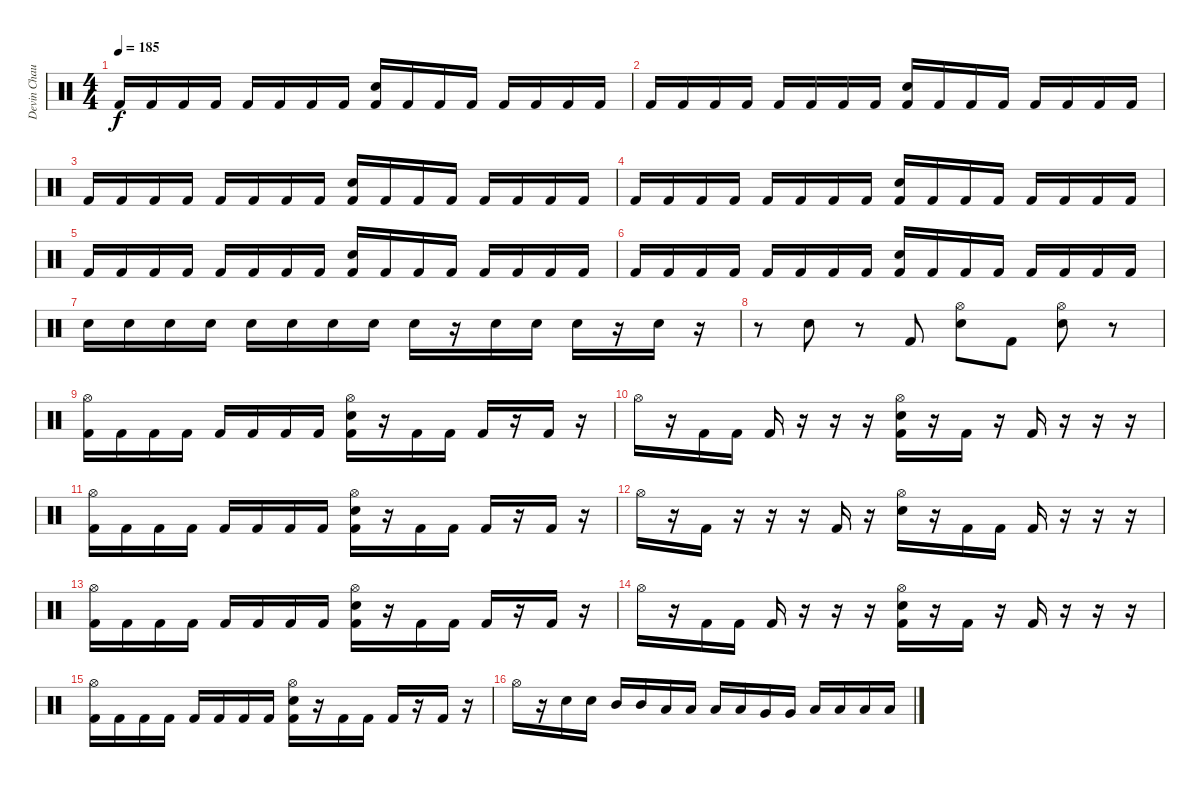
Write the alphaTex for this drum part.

\track ("Devin Chaulk" "Devin Chau") {instrument percussion}
\staff {score}
\articulation defaults
\ts (4 4)
\tempo 185
\clef neutral
\ks c "Kick (hit) 2".16{dy f} "Kick (hit) 2".16 "Kick (hit) 2".16 "Kick (hit) 2".16 "Kick (hit) 2".16 "Kick (hit) 2".16 "Kick (hit) 2".16 "Kick (hit) 2".16
("Snare (hit) 2" "Kick (hit) 2").16 "Kick (hit) 2".16 "Kick (hit) 2".16 "Kick (hit) 2".16 "Kick (hit) 2".16 "Kick (hit) 2".16 "Kick (hit) 2".16 "Kick (hit) 2".16 |
"Kick (hit) 2".16 "Kick (hit) 2".16 "Kick (hit) 2".16 "Kick (hit) 2".16 "Kick (hit) 2".16 "Kick (hit) 2".16 "Kick (hit) 2".16 "Kick (hit) 2".16 ("Snare (hit) 2" "Kick (hit) 2").16 "Kick (hit) 2".16 "Kick (hit) 2".16 "Kick (hit) 2".16 "Kick (hit) 2".16 "Kick (hit) 2".16 "Kick (hit) 2".16 "Kick (hit) 2".16 |
"Kick (hit) 2".16 "Kick (hit) 2".16 "Kick (hit) 2".16 "Kick (hit) 2".16 "Kick (hit) 2".16 "Kick (hit) 2".16 "Kick (hit) 2".16 "Kick (hit) 2".16 ("Snare (hit) 2" "Kick (hit) 2").16 "Kick (hit) 2".16 "Kick (hit) 2".16 "Kick (hit) 2".16 "Kick (hit) 2".16 "Kick (hit) 2".16 "Kick (hit) 2".16 "Kick (hit) 2".16 |
"Kick (hit) 2".16 "Kick (hit) 2".16 "Kick (hit) 2".16 "Kick (hit) 2".16 "Kick (hit) 2".16 "Kick (hit) 2".16 "Kick (hit) 2".16 "Kick (hit) 2".16 ("Snare (hit) 2" "Kick (hit) 2").16 "Kick (hit) 2".16 "Kick (hit) 2".16 "Kick (hit) 2".16 "Kick (hit) 2".16 "Kick (hit) 2".16 "Kick (hit) 2".16 "Kick (hit) 2".16 |
"Kick (hit) 2".16 "Kick (hit) 2".16 "Kick (hit) 2".16 "Kick (hit) 2".16 "Kick (hit) 2".16 "Kick (hit) 2".16 "Kick (hit) 2".16 "Kick (hit) 2".16 ("Snare (hit) 2" "Kick (hit) 2").16 "Kick (hit) 2".16 "Kick (hit) 2".16 "Kick (hit) 2".16 "Kick (hit) 2".16 "Kick (hit) 2".16 "Kick (hit) 2".16 "Kick (hit) 2".16 |
"Kick (hit) 2".16 "Kick (hit) 2".16 "Kick (hit) 2".16 "Kick (hit) 2".16 "Kick (hit) 2".16 "Kick (hit) 2".16 "Kick (hit) 2".16 "Kick (hit) 2".16 ("Snare (hit) 2" "Kick (hit) 2").16 "Kick (hit) 2".16 "Kick (hit) 2".16 "Kick (hit) 2".16 "Kick (hit) 2".16 "Kick (hit) 2".16 "Kick (hit) 2".16 "Kick (hit) 2".16 |
"Snare (hit) 2".16 "Snare (hit) 2".16 "Snare (hit) 2".16 "Snare (hit) 2".16 "Snare (hit) 2".16 "Snare (hit) 2".16 "Snare (hit) 2".16 "Snare (hit) 2".16 "Snare (hit) 2".16 r.16 "Snare (hit) 2".16 "Snare (hit) 2".16 "Snare (hit) 2".16 r.16 "Snare (hit) 2".16 r.16 |
r.8 "Snare (hit) 2".8 r.8 "Kick (hit) 2".8 ("Hi-Hat (open)" "Snare (hit) 2").8 "Kick (hit) 2".8 ("Hi-Hat (open)" "Snare (hit) 2").8 r.8 |
("Hi-Hat (open)" "Kick (hit) 2").16 "Kick (hit) 2".16 "Kick (hit) 2".16 "Kick (hit) 2".16 "Kick (hit) 2".16 "Kick (hit) 2".16 "Kick (hit) 2".16 "Kick (hit) 2".16 ("Hi-Hat (open)" "Snare (hit) 2" "Kick (hit) 2").16 r.16 "Kick (hit) 2".16 "Kick (hit) 2".16 "Kick (hit) 2".16 r.16 "Kick (hit) 2".16 r.16 |
"Hi-Hat (open)".16 r.16 "Kick (hit) 2".16 "Kick (hit) 2".16 "Kick (hit) 2".16 r.16 r.16 r.16 ("Hi-Hat (open)" "Snare (hit) 2" "Kick (hit) 2").16 r.16 "Kick (hit) 2".16 r.16 "Kick (hit) 2".16 r.16 r.16 r.16 |
("Hi-Hat (open)" "Kick (hit) 2").16 "Kick (hit) 2".16 "Kick (hit) 2".16 "Kick (hit) 2".16 "Kick (hit) 2".16 "Kick (hit) 2".16 "Kick (hit) 2".16 "Kick (hit) 2".16 ("Hi-Hat (open)" "Snare (hit) 2" "Kick (hit) 2").16 r.16 "Kick (hit) 2".16 "Kick (hit) 2".16 "Kick (hit) 2".16 r.16 "Kick (hit) 2".16 r.16 |
"Hi-Hat (open)".16 r.16 "Kick (hit) 2".16 r.16 r.16 r.16 "Kick (hit) 2".16 r.16 ("Hi-Hat (open)" "Snare (hit) 2").16 r.16 "Kick (hit) 2".16 "Kick (hit) 2".16 "Kick (hit) 2".16 r.16 r.16 r.16 |
("Hi-Hat (open)" "Kick (hit) 2").16 "Kick (hit) 2".16 "Kick (hit) 2".16 "Kick (hit) 2".16 "Kick (hit) 2".16 "Kick (hit) 2".16 "Kick (hit) 2".16 "Kick (hit) 2".16 ("Hi-Hat (open)" "Snare (hit) 2" "Kick (hit) 2").16 r.16 "Kick (hit) 2".16 "Kick (hit) 2".16 "Kick (hit) 2".16 r.16 "Kick (hit) 2".16 r.16 |
"Hi-Hat (open)".16 r.16 "Kick (hit) 2".16 "Kick (hit) 2".16 "Kick (hit) 2".16 r.16 r.16 r.16 ("Hi-Hat (open)" "Snare (hit) 2" "Kick (hit) 2").16 r.16 "Kick (hit) 2".16 r.16 "Kick (hit) 2".16 r.16 r.16 r.16 |
("Hi-Hat (open)" "Kick (hit) 2").16 "Kick (hit) 2".16 "Kick (hit) 2".16 "Kick (hit) 2".16 "Kick (hit) 2".16 "Kick (hit) 2".16 "Kick (hit) 2".16 "Kick (hit) 2".16 ("Hi-Hat (open)" "Snare (hit) 2" "Kick (hit) 2").16 r.16 "Kick (hit) 2".16 "Kick (hit) 2".16 "Kick (hit) 2".16 r.16 "Kick (hit) 2".16 r.16 |
"Hi-Hat (open)".16 r.16 "Snare (hit) 2".16 "Snare (hit) 2".16 "Mid Tom (hit)".16 "Mid Tom (hit)".16 "Low Tom (hit)".16 "Low Tom (hit)".16 "Low Tom (hit)".16 "Low Tom (hit)".16 "Very Low Tom (hit)".16 "Very Low Tom (hit)".16 "Low Floor Tom (hit)".16 "Low Floor Tom (hit)".16 "Low Floor Tom (hit)".16 "Low Floor Tom (hit)".16
